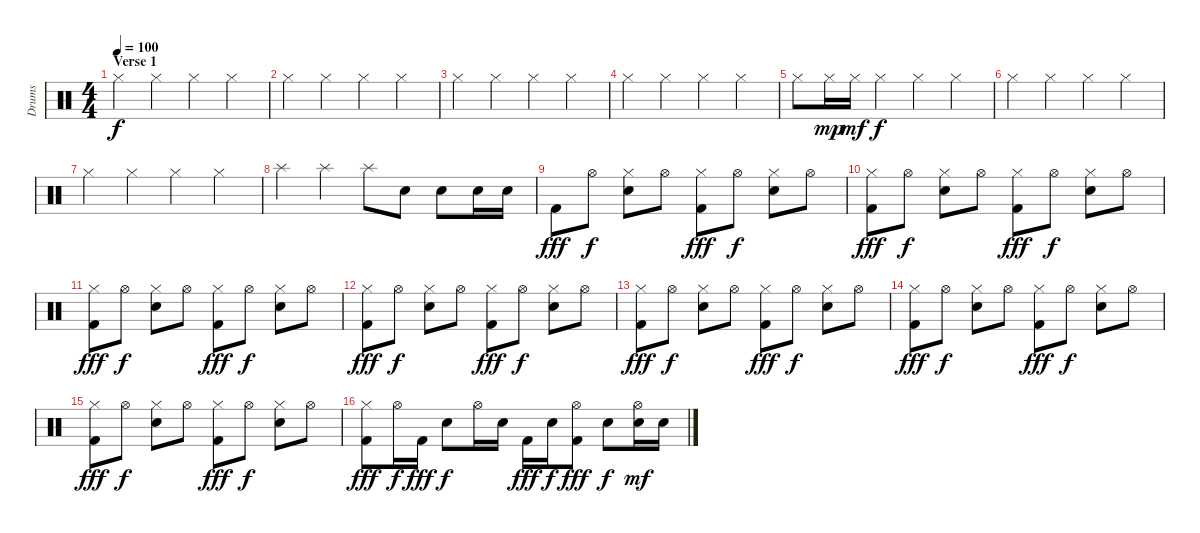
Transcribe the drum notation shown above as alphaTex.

\track ("Drums" "Drums") {instrument percussion}
\staff {score}
\articulation defaults
\ts (4 4)
\section ("" "Verse 1")
\tempo 100
\clef neutral
\ks c "Hi-Hat (closed)".4{dy f} "Hi-Hat (closed)".4 "Hi-Hat (closed)".4 "Hi-Hat (closed)".4
|
"Hi-Hat (closed)".4 "Hi-Hat (closed)".4 "Hi-Hat (closed)".4 "Hi-Hat (closed)".4 |
"Hi-Hat (closed)".4 "Hi-Hat (closed)".4 "Hi-Hat (closed)".4 "Hi-Hat (closed)".4 |
"Hi-Hat (closed)".4 "Hi-Hat (closed)".4 "Hi-Hat (closed)".4 "Hi-Hat (closed)".4 |
"Hi-Hat (closed)".8 "Hi-Hat (closed)".16{dy mp} "Hi-Hat (closed)".16{dy mf} "Hi-Hat (closed)".4{dy f} "Hi-Hat (closed)".4 "Hi-Hat (closed)".4 |
"Hi-Hat (closed)".4 "Hi-Hat (closed)".4 "Hi-Hat (closed)".4 "Hi-Hat (closed)".4 |
"Hi-Hat (closed)".4 "Hi-Hat (closed)".4 "Hi-Hat (closed)".4 "Hi-Hat (closed)".4 |
"Splash (hit)".4 "Splash (hit)".4 "Splash (hit)".8 "Electric Snare (hit)".8 "Electric Snare (hit)".8 "Electric Snare (hit)".16 "Electric Snare (hit)".16 |
"Kick (hit) 2".8{dy fff} "Hi-Hat (open)".8{dy f} ("Hi-Hat (closed)" "Electric Snare (hit)").8 "Hi-Hat (open)".8 ("Hi-Hat (closed)" "Kick (hit) 2").8{dy fff} "Hi-Hat (open)".8{dy f} ("Hi-Hat (closed)" "Electric Snare (hit)").8 "Hi-Hat (open)".8 |
("Hi-Hat (closed)" "Kick (hit) 2").8{dy fff} "Hi-Hat (open)".8{dy f} ("Hi-Hat (closed)" "Electric Snare (hit)").8 "Hi-Hat (open)".8 ("Hi-Hat (closed)" "Kick (hit) 2").8{dy fff} "Hi-Hat (open)".8{dy f} ("Hi-Hat (closed)" "Electric Snare (hit)").8 "Hi-Hat (open)".8 |
("Hi-Hat (closed)" "Kick (hit) 2").8{dy fff} "Hi-Hat (open)".8{dy f} ("Hi-Hat (closed)" "Electric Snare (hit)").8 "Hi-Hat (open)".8 ("Hi-Hat (closed)" "Kick (hit) 2").8{dy fff} "Hi-Hat (open)".8{dy f} ("Hi-Hat (closed)" "Electric Snare (hit)").8 "Hi-Hat (open)".8 |
("Hi-Hat (closed)" "Kick (hit) 2").8{dy fff} "Hi-Hat (open)".8{dy f} ("Hi-Hat (closed)" "Electric Snare (hit)").8 "Hi-Hat (open)".8 ("Hi-Hat (closed)" "Kick (hit) 2").8{dy fff} "Hi-Hat (open)".8{dy f} ("Hi-Hat (closed)" "Electric Snare (hit)").8 "Hi-Hat (open)".8 |
("Hi-Hat (closed)" "Kick (hit) 2").8{dy fff} "Hi-Hat (open)".8{dy f} ("Hi-Hat (closed)" "Electric Snare (hit)").8 "Hi-Hat (open)".8 ("Hi-Hat (closed)" "Kick (hit) 2").8{dy fff} "Hi-Hat (open)".8{dy f} ("Hi-Hat (closed)" "Electric Snare (hit)").8 "Hi-Hat (open)".8 |
("Hi-Hat (closed)" "Kick (hit) 2").8{dy fff} "Hi-Hat (open)".8{dy f} ("Hi-Hat (closed)" "Electric Snare (hit)").8 "Hi-Hat (open)".8 ("Hi-Hat (closed)" "Kick (hit) 2").8{dy fff} "Hi-Hat (open)".8{dy f} ("Hi-Hat (closed)" "Electric Snare (hit)").8 "Hi-Hat (open)".8 |
("Hi-Hat (closed)" "Kick (hit) 2").8{dy fff} "Hi-Hat (open)".8{dy f} ("Hi-Hat (closed)" "Electric Snare (hit)").8 "Hi-Hat (open)".8 ("Hi-Hat (closed)" "Kick (hit) 2").8{dy fff} "Hi-Hat (open)".8{dy f} ("Hi-Hat (closed)" "Electric Snare (hit)").8 "Hi-Hat (open)".8 |
("Hi-Hat (closed)" "Kick (hit) 2").8{dy fff} "Hi-Hat (open)".16{dy f} "Kick (hit) 2".16{dy fff} "Electric Snare (hit)".8{dy f} "Hi-Hat (open)".16 "Electric Snare (hit)".16 "Kick (hit) 2".16{dy fff} "Electric Snare (hit)".16{dy f} ("Hi-Hat (open)" "Kick (hit) 2").8{dy fff} "Electric Snare (hit)".8{dy f} ("Hi-Hat (open)" "Electric Snare (hit)").16{dy mf} "Electric Snare (hit)".16
